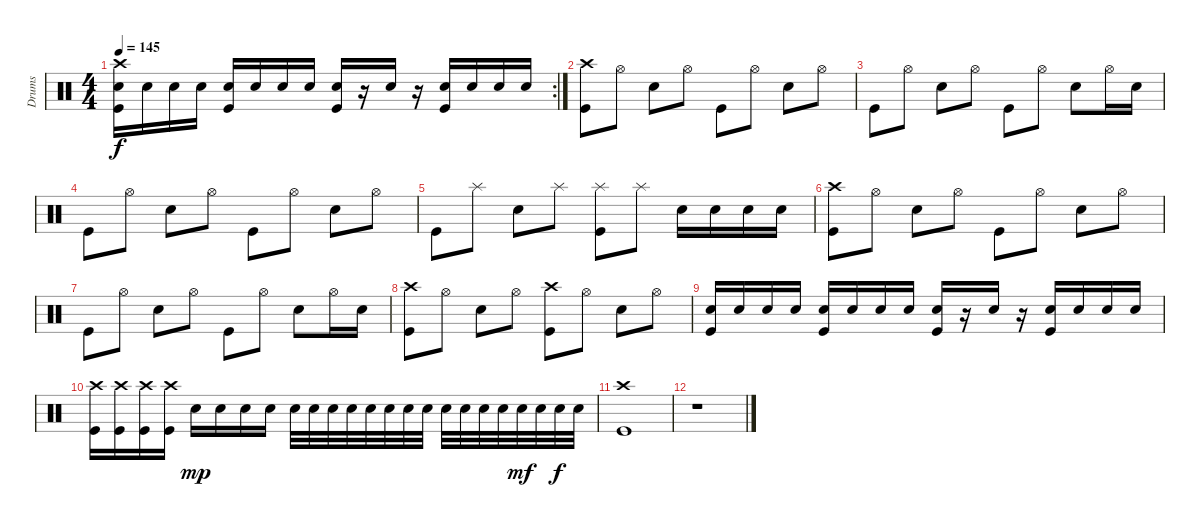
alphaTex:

\track ("Drums" "Drums") {instrument percussion}
\staff {score}
\articulation defaults
\rc 2
\ts (4 4)
\tempo 145
\clef neutral
\ks c
("Crash high (hit)" "Electric Snare (hit)" "Kick (hit)").16{dy f} "Electric Snare (hit)".16 "Electric Snare (hit)".16 "Electric Snare (hit)".16 ("Electric Snare (hit)" "Kick (hit)").16 "Electric Snare (hit)".16 "Electric Snare (hit)".16 "Electric Snare (hit)".16 ("Electric Snare (hit)" "Kick (hit)").16 r.16 "Electric Snare (hit)".16 r.16 ("Electric Snare (hit)" "Kick (hit)").16 "Electric Snare (hit)".16 "Electric Snare (hit)".16 "Electric Snare (hit)".16 |
("Crash high (hit)" "Kick (hit)").8 "Hi-Hat (open)".8 "Electric Snare (hit)".8 "Hi-Hat (open)".8 "Kick (hit)".8 "Hi-Hat (open)".8 "Electric Snare (hit)".8 "Hi-Hat (open)".8 |
"Kick (hit)".8 "Hi-Hat (open)".8 "Electric Snare (hit)".8 "Hi-Hat (open)".8 "Kick (hit)".8 "Hi-Hat (open)".8 "Electric Snare (hit)".8 "Hi-Hat (open)".16 "Electric Snare (hit)".16 |
"Kick (hit)".8 "Hi-Hat (open)".8 "Electric Snare (hit)".8 "Hi-Hat (open)".8 "Kick (hit)".8 "Hi-Hat (open)".8 "Electric Snare (hit)".8 "Hi-Hat (open)".8 |
"Kick (hit)".8 "Splash (hit)".8 "Electric Snare (hit)".8 "Splash (hit)".8 ("Splash (hit)" "Kick (hit)").8 "Splash (hit)".8 "Electric Snare (hit)".16 "Electric Snare (hit)".16 "Electric Snare (hit)".16 "Electric Snare (hit)".16 |
("Crash high (hit)" "Kick (hit)").8 "Hi-Hat (open)".8 "Electric Snare (hit)".8 "Hi-Hat (open)".8 "Kick (hit)".8 "Hi-Hat (open)".8 "Electric Snare (hit)".8 "Hi-Hat (open)".8 |
"Kick (hit)".8 "Hi-Hat (open)".8 "Electric Snare (hit)".8 "Hi-Hat (open)".8 "Kick (hit)".8 "Hi-Hat (open)".8 "Electric Snare (hit)".8 "Hi-Hat (open)".16 "Electric Snare (hit)".16 |
("Crash high (hit)" "Kick (hit)").8 "Hi-Hat (open)".8 "Electric Snare (hit)".8 "Hi-Hat (open)".8 ("Crash high (hit)" "Kick (hit)").8 "Hi-Hat (open)".8 "Electric Snare (hit)".8 "Hi-Hat (open)".8 |
("Electric Snare (hit)" "Kick (hit)").16 "Electric Snare (hit)".16 "Electric Snare (hit)".16 "Electric Snare (hit)".16 ("Electric Snare (hit)" "Kick (hit)").16 "Electric Snare (hit)".16 "Electric Snare (hit)".16 "Electric Snare (hit)".16 ("Electric Snare (hit)" "Kick (hit)").16 r.16 "Electric Snare (hit)".16 r.16 ("Electric Snare (hit)" "Kick (hit)").16 "Electric Snare (hit)".16 "Electric Snare (hit)".16 "Electric Snare (hit)".16 |
("Crash high (hit)" "Kick (hit)").16 ("Crash high (hit)" "Kick (hit)").16 ("Crash high (hit)" "Kick (hit)").16 ("Crash high (hit)" "Kick (hit)").16 "Electric Snare (hit)".16{dy mp} "Electric Snare (hit)".16 "Electric Snare (hit)".16 "Electric Snare (hit)".16 "Electric Snare (hit)".32 "Electric Snare (hit)".32 "Electric Snare (hit)".32 "Electric Snare (hit)".32 "Electric Snare (hit)".32 "Electric Snare (hit)".32 "Electric Snare (hit)".32 "Electric Snare (hit)".32 "Electric Snare (hit)".32 "Electric Snare (hit)".32 "Electric Snare (hit)".32 "Electric Snare (hit)".32 "Electric Snare (hit)".32{dy mf} "Electric Snare (hit)".32 "Electric Snare (hit)".32{dy f} "Electric Snare (hit)".32 |
("Crash high (hit)" "Kick (hit)").1 |
r.1
